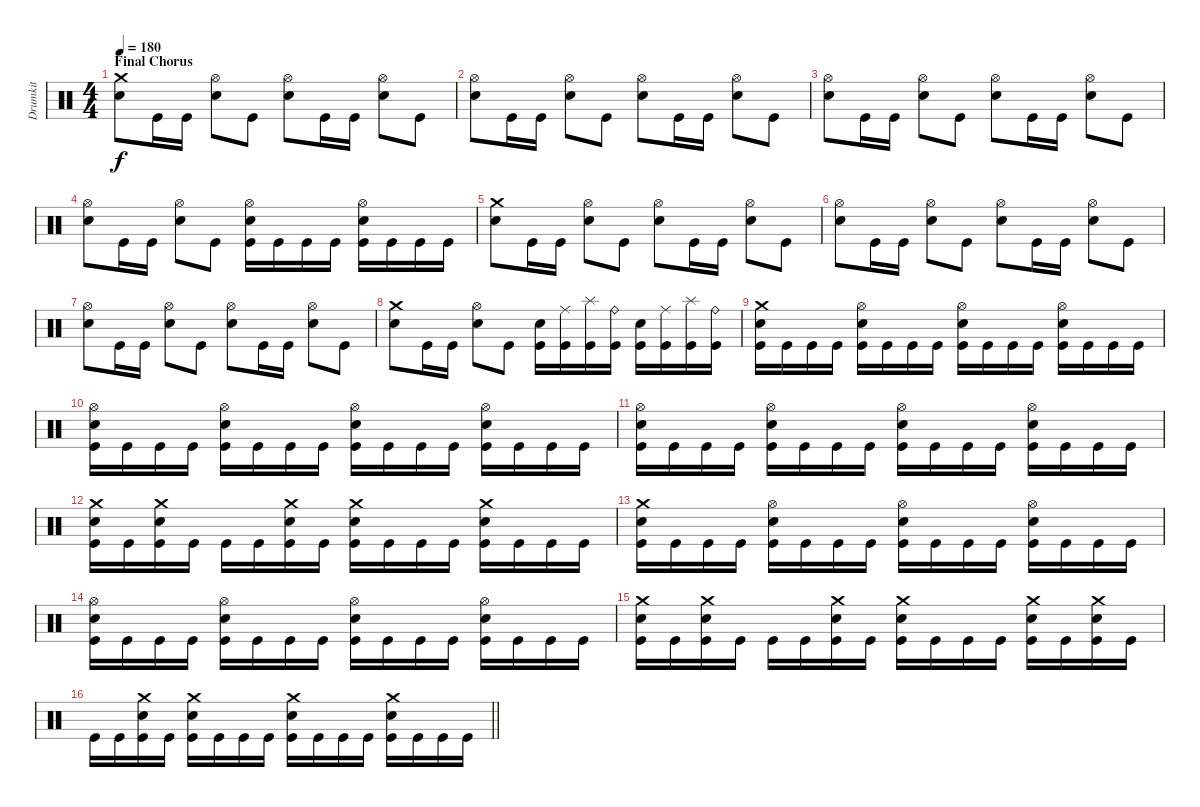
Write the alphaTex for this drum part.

\track ("Drumkit" "Drumkit") {instrument percussion}
\staff {score}
\articulation defaults
\ts (4 4)
\section ("" "Final Chorus")
\tempo 180
\clef neutral
\ks c
("Crash medium (hit)" "Snare (hit) 2").8{dy f} "Kick (hit)".16 "Kick (hit)".16 ("Hi-Hat (open)" "Snare (hit) 2").8 "Kick (hit)".8 ("Hi-Hat (open)" "Snare (hit) 2").8 "Kick (hit)".16 "Kick (hit)".16 ("Hi-Hat (open)" "Snare (hit) 2").8 "Kick (hit)".8 |
("Hi-Hat (open)" "Snare (hit) 2").8 "Kick (hit)".16 "Kick (hit)".16 ("Hi-Hat (open)" "Snare (hit) 2").8 "Kick (hit)".8 ("Hi-Hat (open)" "Snare (hit) 2").8 "Kick (hit)".16 "Kick (hit)".16 ("Hi-Hat (open)" "Snare (hit) 2").8 "Kick (hit)".8 |
("Hi-Hat (open)" "Snare (hit) 2").8 "Kick (hit)".16 "Kick (hit)".16 ("Hi-Hat (open)" "Snare (hit) 2").8 "Kick (hit)".8 ("Hi-Hat (open)" "Snare (hit) 2").8 "Kick (hit)".16 "Kick (hit)".16 ("Hi-Hat (open)" "Snare (hit) 2").8 "Kick (hit)".8 |
("Hi-Hat (open)" "Snare (hit) 2").8 "Kick (hit)".16 "Kick (hit)".16 ("Hi-Hat (open)" "Snare (hit) 2").8 "Kick (hit)".8 ("Hi-Hat (open)" "Snare (hit) 2" "Kick (hit)").16 "Kick (hit)".16 "Kick (hit)".16 "Kick (hit)".16 ("Hi-Hat (open)" "Snare (hit) 2" "Kick (hit)").16 "Kick (hit)".16 "Kick (hit)".16 "Kick (hit)".16 |
("Crash medium (hit)" "Snare (hit) 2").8 "Kick (hit)".16 "Kick (hit)".16 ("Hi-Hat (open)" "Snare (hit) 2").8 "Kick (hit)".8 ("Hi-Hat (open)" "Snare (hit) 2").8 "Kick (hit)".16 "Kick (hit)".16 ("Hi-Hat (open)" "Snare (hit) 2").8 "Kick (hit)".8 |
("Hi-Hat (open)" "Snare (hit) 2").8 "Kick (hit)".16 "Kick (hit)".16 ("Hi-Hat (open)" "Snare (hit) 2").8 "Kick (hit)".8 ("Hi-Hat (open)" "Snare (hit) 2").8 "Kick (hit)".16 "Kick (hit)".16 ("Hi-Hat (open)" "Snare (hit) 2").8 "Kick (hit)".8 |
("Hi-Hat (open)" "Snare (hit) 2").8 "Kick (hit)".16 "Kick (hit)".16 ("Hi-Hat (open)" "Snare (hit) 2").8 "Kick (hit)".8 ("Hi-Hat (open)" "Snare (hit) 2").8 "Kick (hit)".16 "Kick (hit)".16 ("Hi-Hat (open)" "Snare (hit) 2").8 "Kick (hit)".8 |
("Crash medium (hit)" "Snare (hit) 2").8 "Kick (hit)".16 "Kick (hit)".16 ("Hi-Hat (open)" "Snare (hit) 2").8 "Kick (hit)".8 ("Snare (hit) 2" "Kick (hit)").16 ("Ride (middle)" "Kick (hit)").16 ("Splash (hit)" "Kick (hit)").16 ("Ride (bell)" "Kick (hit)").16 ("Snare (hit) 2" "Kick (hit)").16 ("Ride (middle)" "Kick (hit)").16 ("Splash (hit)" "Kick (hit)").16 ("Ride (bell)" "Kick (hit)").16 |
("Crash medium (hit)" "Snare (hit) 2" "Kick (hit)").16 "Kick (hit)".16 "Kick (hit)".16 "Kick (hit)".16 ("Hi-Hat (open)" "Snare (hit) 2" "Kick (hit)").16 "Kick (hit)".16 "Kick (hit)".16 "Kick (hit)".16 ("Hi-Hat (open)" "Snare (hit) 2" "Kick (hit)").16 "Kick (hit)".16 "Kick (hit)".16 "Kick (hit)".16 ("Hi-Hat (open)" "Snare (hit) 2" "Kick (hit)").16 "Kick (hit)".16 "Kick (hit)".16 "Kick (hit)".16 |
("Hi-Hat (open)" "Snare (hit) 2" "Kick (hit)").16 "Kick (hit)".16 "Kick (hit)".16 "Kick (hit)".16 ("Hi-Hat (open)" "Snare (hit) 2" "Kick (hit)").16 "Kick (hit)".16 "Kick (hit)".16 "Kick (hit)".16 ("Hi-Hat (open)" "Snare (hit) 2" "Kick (hit)").16 "Kick (hit)".16 "Kick (hit)".16 "Kick (hit)".16 ("Hi-Hat (open)" "Snare (hit) 2" "Kick (hit)").16 "Kick (hit)".16 "Kick (hit)".16 "Kick (hit)".16 |
("Hi-Hat (open)" "Snare (hit) 2" "Kick (hit)").16 "Kick (hit)".16 "Kick (hit)".16 "Kick (hit)".16 ("Hi-Hat (open)" "Snare (hit) 2" "Kick (hit)").16 "Kick (hit)".16 "Kick (hit)".16 "Kick (hit)".16 ("Hi-Hat (open)" "Snare (hit) 2" "Kick (hit)").16 "Kick (hit)".16 "Kick (hit)".16 "Kick (hit)".16 ("Hi-Hat (open)" "Snare (hit) 2" "Kick (hit)").16 "Kick (hit)".16 "Kick (hit)".16 "Kick (hit)".16 |
("Crash medium (hit)" "Snare (hit) 2" "Kick (hit)").16 "Kick (hit)".16 ("Crash medium (hit)" "Snare (hit) 2" "Kick (hit)").16 "Kick (hit)".16 "Kick (hit)".16 "Kick (hit)".16 ("Crash medium (hit)" "Snare (hit) 2" "Kick (hit)").16 "Kick (hit)".16 ("Crash medium (hit)" "Snare (hit) 2" "Kick (hit)").16 "Kick (hit)".16 "Kick (hit)".16 "Kick (hit)".16 ("Crash medium (hit)" "Snare (hit) 2" "Kick (hit)").16 "Kick (hit)".16 "Kick (hit)".16 "Kick (hit)".16 |
("Crash medium (hit)" "Snare (hit) 2" "Kick (hit)").16 "Kick (hit)".16 "Kick (hit)".16 "Kick (hit)".16 ("Hi-Hat (open)" "Snare (hit) 2" "Kick (hit)").16 "Kick (hit)".16 "Kick (hit)".16 "Kick (hit)".16 ("Hi-Hat (open)" "Snare (hit) 2" "Kick (hit)").16 "Kick (hit)".16 "Kick (hit)".16 "Kick (hit)".16 ("Hi-Hat (open)" "Snare (hit) 2" "Kick (hit)").16 "Kick (hit)".16 "Kick (hit)".16 "Kick (hit)".16 |
("Hi-Hat (open)" "Snare (hit) 2" "Kick (hit)").16 "Kick (hit)".16 "Kick (hit)".16 "Kick (hit)".16 ("Hi-Hat (open)" "Snare (hit) 2" "Kick (hit)").16 "Kick (hit)".16 "Kick (hit)".16 "Kick (hit)".16 ("Hi-Hat (open)" "Snare (hit) 2" "Kick (hit)").16 "Kick (hit)".16 "Kick (hit)".16 "Kick (hit)".16 ("Hi-Hat (open)" "Snare (hit) 2" "Kick (hit)").16 "Kick (hit)".16 "Kick (hit)".16 "Kick (hit)".16 |
("Crash medium (hit)" "Snare (hit) 2" "Kick (hit)").16 "Kick (hit)".16 ("Crash medium (hit)" "Snare (hit) 2" "Kick (hit)").16 "Kick (hit)".16 "Kick (hit)".16 "Kick (hit)".16 ("Crash medium (hit)" "Snare (hit) 2" "Kick (hit)").16 "Kick (hit)".16 ("Crash medium (hit)" "Snare (hit) 2" "Kick (hit)").16 "Kick (hit)".16 "Kick (hit)".16 "Kick (hit)".16 ("Crash medium (hit)" "Snare (hit) 2" "Kick (hit)").16 "Kick (hit)".16 ("Crash medium (hit)" "Snare (hit) 2" "Kick (hit)").16 "Kick (hit)".16 |
\barLineRight lightlight "Kick (hit)".16 "Kick (hit)".16
("Crash medium (hit)" "Snare (hit) 2" "Kick (hit)").16 "Kick (hit)".16 ("Crash medium (hit)" "Snare (hit) 2" "Kick (hit)").16 "Kick (hit)".16 "Kick (hit)".16 "Kick (hit)".16 ("Crash medium (hit)" "Snare (hit) 2" "Kick (hit)").16 "Kick (hit)".16 "Kick (hit)".16 "Kick (hit)".16 ("Crash medium (hit)" "Snare (hit) 2" "Kick (hit)").16 "Kick (hit)".16 "Kick (hit)".16 "Kick (hit)".16
